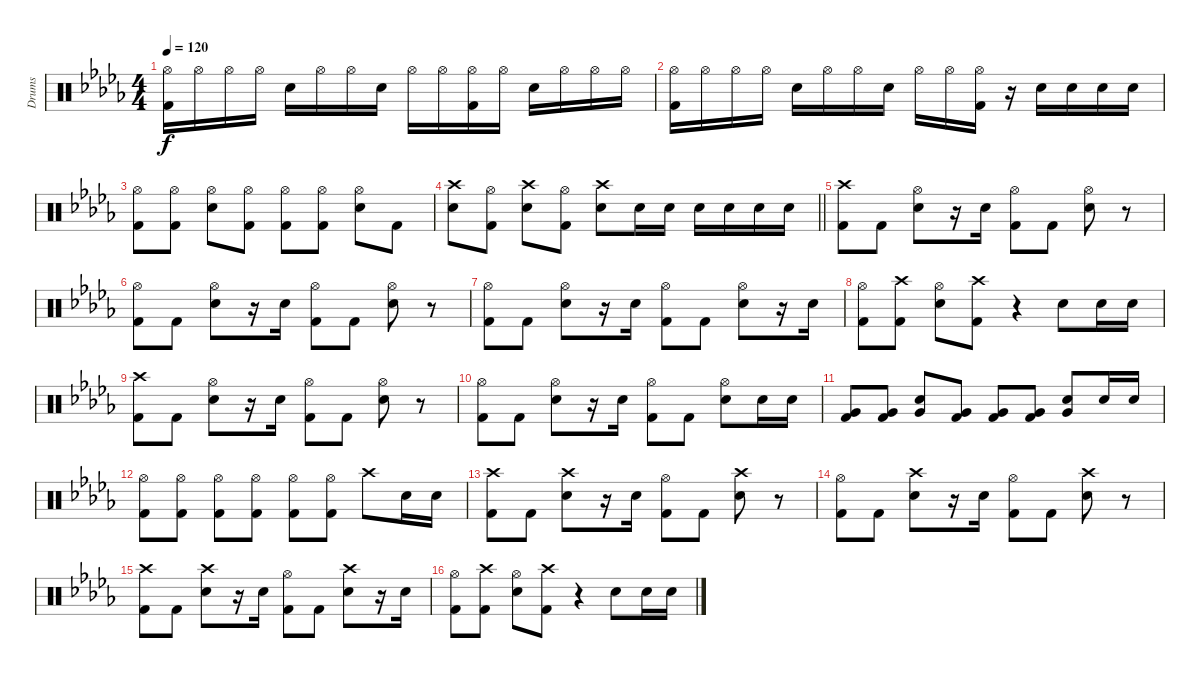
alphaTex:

\track ("Drums" "Drums") {instrument percussion}
\staff {score}
\articulation defaults
\ts (4 4)
\tempo 120
\clef neutral
\ks db
("Hi-Hat (open)" "Kick (hit) 2").16{dy f} "Hi-Hat (open)".16 "Hi-Hat (open)".16 "Hi-Hat (open)".16 "Snare (hit) 2".16 "Hi-Hat (open)".16 "Hi-Hat (open)".16 "Snare (hit) 2".16 "Hi-Hat (open)".16 "Hi-Hat (open)".16 ("Hi-Hat (open)" "Kick (hit) 2").16 "Hi-Hat (open)".16 "Snare (hit) 2".16 "Hi-Hat (open)".16 "Hi-Hat (open)".16 "Hi-Hat (open)".16 |
("Hi-Hat (open)" "Kick (hit) 2").16 "Hi-Hat (open)".16 "Hi-Hat (open)".16 "Hi-Hat (open)".16 "Snare (hit) 2".16 "Hi-Hat (open)".16 "Hi-Hat (open)".16 "Snare (hit) 2".16 "Hi-Hat (open)".16 "Hi-Hat (open)".16 ("Hi-Hat (open)" "Kick (hit) 2").16 r.16 "Snare (hit) 2".16 "Snare (hit) 2".16 "Snare (hit) 2".16 "Snare (hit) 2".16 |
("Hi-Hat (open)" "Kick (hit) 2").8 ("Hi-Hat (open)" "Kick (hit) 2").8 ("Hi-Hat (open)" "Snare (hit) 2").8 ("Hi-Hat (open)" "Kick (hit) 2").8 ("Hi-Hat (open)" "Kick (hit) 2").8 ("Hi-Hat (open)" "Kick (hit) 2").8 ("Hi-Hat (open)" "Snare (hit) 2").8 "Kick (hit) 2".8 |
\barLineRight lightlight
("Crash high (hit)" "Snare (hit) 2").8 ("Hi-Hat (open)" "Kick (hit) 2").8 ("Crash high (hit)" "Snare (hit) 2").8 ("Hi-Hat (open)" "Kick (hit) 2").8 ("Crash high (hit)" "Snare (hit) 2").8 "Snare (hit) 2".16 "Snare (hit) 2".16 "Snare (hit) 2".16 "Snare (hit) 2".16 "Snare (hit) 2".16 "Snare (hit) 2".16 |
("Crash high (hit)" "Kick (hit) 2").8 "Kick (hit) 2".8 ("Hi-Hat (open)" "Snare (hit) 2").8 r.16 "Snare (hit) 2".16 ("Hi-Hat (open)" "Kick (hit) 2").8 "Kick (hit) 2".8 ("Hi-Hat (open)" "Snare (hit) 2").8 r.8 |
("Hi-Hat (open)" "Kick (hit) 2").8 "Kick (hit) 2".8 ("Hi-Hat (open)" "Snare (hit) 2").8 r.16 "Snare (hit) 2".16 ("Hi-Hat (open)" "Kick (hit) 2").8 "Kick (hit) 2".8 ("Hi-Hat (open)" "Snare (hit) 2").8 r.8 |
("Hi-Hat (open)" "Kick (hit) 2").8 "Kick (hit) 2".8 ("Hi-Hat (open)" "Snare (hit) 2").8 r.16 "Snare (hit) 2".16 ("Hi-Hat (open)" "Kick (hit) 2").8 "Kick (hit) 2".8 ("Hi-Hat (open)" "Snare (hit) 2").8 r.16 "Snare (hit) 2".16 |
("Hi-Hat (open)" "Kick (hit) 2").8 ("Crash high (hit)" "Kick (hit) 2").8 ("Hi-Hat (open)" "Snare (hit) 2").8 ("Crash high (hit)" "Kick (hit) 2").8 r.4 "Snare (hit) 2".8 "Snare (hit)".16 "Snare (hit) 2".16 |
("Crash high (hit)" "Kick (hit) 2").8 "Kick (hit) 2".8 ("Hi-Hat (open)" "Snare (hit) 2").8 r.16 "Snare (hit) 2".16 ("Hi-Hat (open)" "Kick (hit) 2").8 "Kick (hit) 2".8 ("Hi-Hat (open)" "Snare (hit) 2").8 r.8 |
("Hi-Hat (open)" "Kick (hit) 2").8 "Kick (hit) 2".8 ("Hi-Hat (open)" "Snare (hit) 2").8 r.16 "Snare (hit) 2".16 ("Hi-Hat (open)" "Kick (hit) 2").8 "Kick (hit) 2".8 ("Hi-Hat (open)" "Snare (hit) 2").8 "Snare (hit) 2".16 "Snare (hit) 2".16 |
("Very Low Tom (hit)" "Kick (hit) 2").8 ("Very Low Tom (hit)" "Kick (hit) 2").8 ("Snare (hit) 2" "Very Low Tom (hit)").8 ("Very Low Tom (hit)" "Kick (hit) 2").8 ("Very Low Tom (hit)" "Kick (hit) 2").8 ("Very Low Tom (hit)" "Kick (hit) 2").8 ("Snare (hit) 2" "Very Low Tom (hit)").8 "Snare (hit) 2".16 "Snare (hit) 2".16 |
("Hi-Hat (open)" "Kick (hit) 2").8 ("Hi-Hat (open)" "Kick (hit) 2").8 ("Hi-Hat (open)" "Kick (hit) 2").8 ("Hi-Hat (open)" "Kick (hit) 2").8 ("Hi-Hat (open)" "Kick (hit) 2").8 ("Hi-Hat (open)" "Kick (hit) 2").8 "Crash high (hit)".8 "Snare (hit) 2".16 "Snare (hit) 2".16 |
("Crash high (hit)" "Kick (hit) 2").8 "Kick (hit) 2".8 ("Crash high (hit)" "Snare (hit) 2").8 r.16 "Snare (hit) 2".16 ("Hi-Hat (open)" "Kick (hit) 2").8{txt ""} "Kick (hit) 2".8 ("Crash high (hit)" "Snare (hit) 2").8 r.8 |
("Hi-Hat (open)" "Kick (hit) 2").8 "Kick (hit) 2".8 ("Crash high (hit)" "Snare (hit) 2").8 r.16 "Snare (hit) 2".16 ("Hi-Hat (open)" "Kick (hit) 2").8 "Kick (hit) 2".8 ("Crash high (hit)" "Snare (hit) 2").8 r.8 |
("Crash high (hit)" "Kick (hit) 2").8 "Kick (hit) 2".8 ("Crash high (hit)" "Snare (hit) 2").8 r.16 "Snare (hit) 2".16 ("Hi-Hat (open)" "Kick (hit) 2").8 "Kick (hit) 2".8 ("Crash high (hit)" "Snare (hit) 2").8 r.16 "Snare (hit) 2".16 |
("Hi-Hat (open)" "Kick (hit) 2").8 ("Crash high (hit)" "Kick (hit) 2").8 ("Hi-Hat (open)" "Snare (hit) 2").8 ("Crash high (hit)" "Kick (hit) 2").8 r.4 "Snare (hit) 2".8 "Snare (hit) 2".16 "Snare (hit) 2".16
